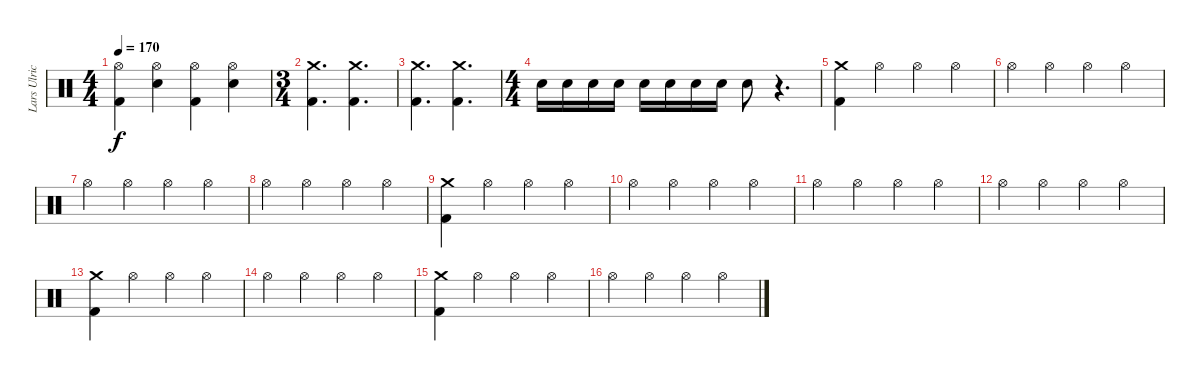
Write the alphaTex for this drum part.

\track ("Lars Ulrich" "Lars Ulric") {instrument percussion}
\staff {score}
\articulation defaults
\ts (4 4)
\tempo 170
\clef neutral
\ks c
("Hi-Hat (open)" "Kick (hit) 2").4{dy f} ("Hi-Hat (open)" "Electric Snare (hit)").4 ("Hi-Hat (open)" "Kick (hit) 2").4 ("Hi-Hat (open)" "Electric Snare (hit)").4 |
\ts (3 4)
("Crash medium (hit)" "Kick (hit) 2").4{d} ("Crash medium (hit)" "Kick (hit) 2").4{d} |
("Crash medium (hit)" "Kick (hit) 2").4{d} ("Crash medium (hit)" "Kick (hit) 2").4{d} |
\ts (4 4)
"Electric Snare (hit)".16 "Electric Snare (hit)".16 "Electric Snare (hit)".16 "Electric Snare (hit)".16 "Electric Snare (hit)".16 "Electric Snare (hit)".16 "Electric Snare (hit)".16 "Electric Snare (hit)".16 "Electric Snare (hit)".8 r.4{d} |
("Crash medium (hit)" "Kick (hit) 2").4 "Hi-Hat (open)".4 "Hi-Hat (open)".4 "Hi-Hat (open)".4 |
"Hi-Hat (open)".4 "Hi-Hat (open)".4 "Hi-Hat (open)".4 "Hi-Hat (open)".4 |
"Hi-Hat (open)".4 "Hi-Hat (open)".4 "Hi-Hat (open)".4 "Hi-Hat (open)".4 |
"Hi-Hat (open)".4 "Hi-Hat (open)".4 "Hi-Hat (open)".4 "Hi-Hat (open)".4 |
("Crash medium (hit)" "Kick (hit) 2").4 "Hi-Hat (open)".4 "Hi-Hat (open)".4 "Hi-Hat (open)".4 |
"Hi-Hat (open)".4 "Hi-Hat (open)".4 "Hi-Hat (open)".4 "Hi-Hat (open)".4 |
"Hi-Hat (open)".4 "Hi-Hat (open)".4 "Hi-Hat (open)".4 "Hi-Hat (open)".4 |
"Hi-Hat (open)".4 "Hi-Hat (open)".4 "Hi-Hat (open)".4 "Hi-Hat (open)".4 |
("Crash medium (hit)" "Kick (hit) 2").4 "Hi-Hat (open)".4 "Hi-Hat (open)".4 "Hi-Hat (open)".4 |
"Hi-Hat (open)".4 "Hi-Hat (open)".4 "Hi-Hat (open)".4 "Hi-Hat (open)".4 |
("Crash medium (hit)" "Kick (hit) 2").4 "Hi-Hat (open)".4 "Hi-Hat (open)".4 "Hi-Hat (open)".4 |
"Hi-Hat (open)".4 "Hi-Hat (open)".4 "Hi-Hat (open)".4 "Hi-Hat (open)".4
